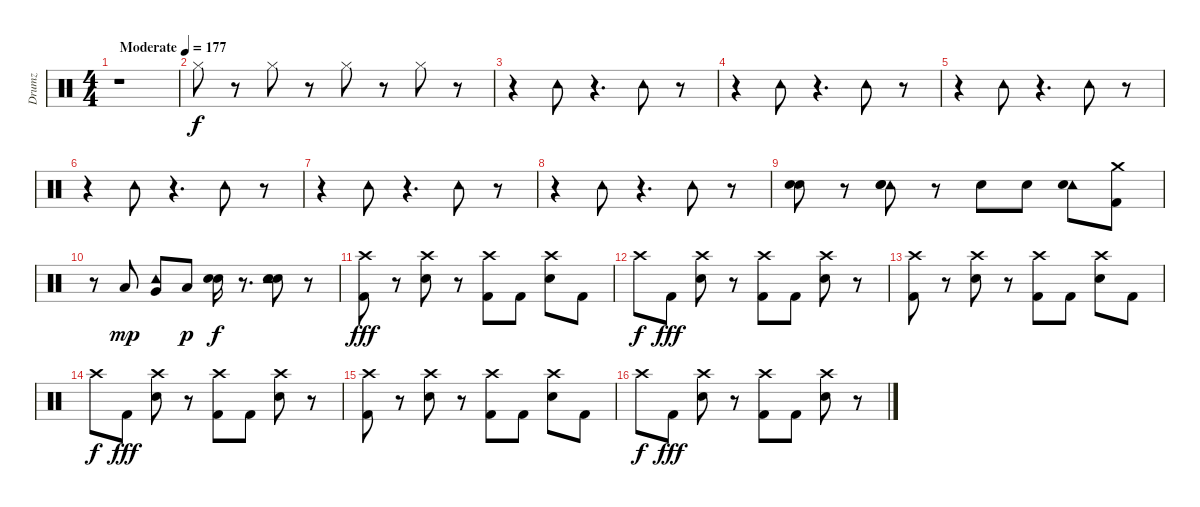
\track ("Drumz" "Drumz") {instrument percussion}
\staff {score}
\articulation defaults
\ts (4 4)
\tempo (177 "Moderate")
\clef neutral
\ks c
r.1{dy f} |
"Hi-Hat (closed)".8 r.8 "Hi-Hat (closed)".8 r.8 "Hi-Hat (closed)".8 r.8 "Hi-Hat (closed)".8 r.8 |
r.4 "Tambourine (hit)".8 r.4{d} "Tambourine (hit)".8 r.8 |
r.4 "Tambourine (hit)".8 r.4{d} "Tambourine (hit)".8 r.8 |
r.4 "Tambourine (hit)".8 r.4{d} "Tambourine (hit)".8 r.8 |
r.4 "Tambourine (hit)".8 r.4{d} "Tambourine (hit)".8 r.8 |
r.4 "Tambourine (hit)".8 r.4{d} "Tambourine (hit)".8 r.8 |
r.4 "Tambourine (hit)".8 r.4{d} "Tambourine (hit)".8 r.8 |
("Electric Snare (hit)" "Snare (hit) 2").8 r.8 ("Tambourine (hit)" "Electric Snare (hit)" "Snare (hit) 2").8 r.8 "Snare (hit) 2".8 "Snare (hit) 2".8 ("Tambourine (hit)" "Snare (hit) 2").8 ("Crash medium (hit)" "Kick (hit) 2").8 |
r.8 "Low Tom (hit)".8{dy mp} ("Very Low Tom (hit)" "Tambourine (hit)").8 "Low Floor Tom (hit)".8{dy p} ("Electric Snare (hit)" "Snare (hit) 2").16{dy f} r.8{d} ("Electric Snare (hit)" "Snare (hit) 2" "Tambourine (hit)").8 r.8 |
("Crash high (hit)" "Kick (hit) 2").8{dy fff} r.8 ("Crash high (hit)" "Snare (hit) 2").8 r.8 ("Kick (hit) 2" "Crash high (hit)").8 "Kick (hit) 2".8 ("Crash high (hit)" "Snare (hit) 2").8 "Kick (hit) 2".8 |
"Crash high (hit)".8{dy f} "Kick (hit) 2".8{dy fff} ("Crash high (hit)" "Snare (hit) 2").8 r.8 ("Crash high (hit)" "Kick (hit) 2").8 "Kick (hit) 2".8 ("Crash high (hit)" "Snare (hit) 2").8 r.8 |
("Crash high (hit)" "Kick (hit) 2").8 r.8 ("Crash high (hit)" "Snare (hit) 2").8 r.8 ("Kick (hit) 2" "Crash high (hit)").8 "Kick (hit) 2".8 ("Crash high (hit)" "Snare (hit) 2").8 "Kick (hit) 2".8 |
"Crash high (hit)".8{dy f} "Kick (hit) 2".8{dy fff} ("Crash high (hit)" "Snare (hit) 2").8 r.8 ("Crash high (hit)" "Kick (hit) 2").8 "Kick (hit) 2".8 ("Crash high (hit)" "Snare (hit) 2").8 r.8 |
("Crash high (hit)" "Kick (hit) 2").8 r.8 ("Crash high (hit)" "Snare (hit) 2").8 r.8 ("Kick (hit) 2" "Crash high (hit)").8 "Kick (hit) 2".8 ("Crash high (hit)" "Snare (hit) 2").8 "Kick (hit) 2".8 |
"Crash high (hit)".8{dy f} "Kick (hit) 2".8{dy fff} ("Crash high (hit)" "Snare (hit) 2").8 r.8 ("Crash high (hit)" "Kick (hit) 2").8 "Kick (hit) 2".8 ("Crash high (hit)" "Snare (hit) 2").8 r.8
